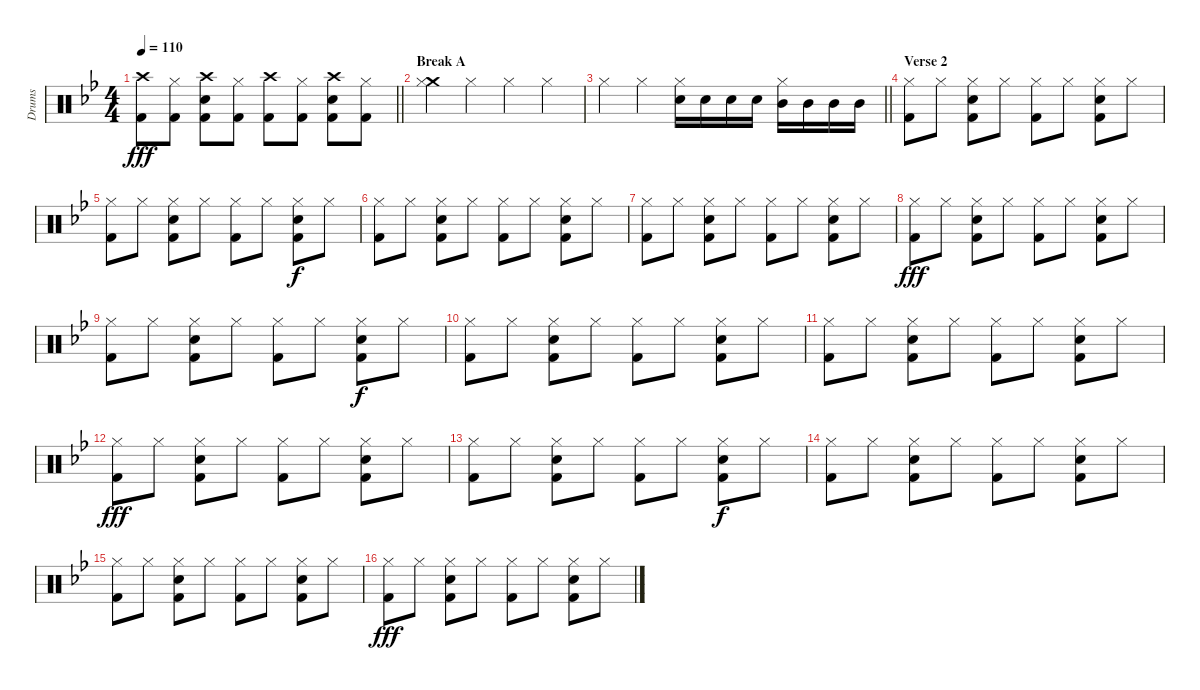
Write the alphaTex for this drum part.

\track ("Drums" "Drums") {instrument percussion}
\staff {score}
\articulation defaults
\ts (4 4)
\tempo 110
\clef neutral
\barLineRight lightlight
\ks bb
("Crash high (hit)" "Kick (hit) 2").8{dy fff} ("Hi-Hat (closed)" "Kick (hit) 2").8 ("Crash high (hit)" "Electric Snare (hit)" "Kick (hit) 2").8 ("Hi-Hat (closed)" "Kick (hit) 2").8 ("Crash high (hit)" "Kick (hit) 2").8 ("Hi-Hat (closed)" "Kick (hit) 2").8 ("Crash high (hit)" "Electric Snare (hit)" "Kick (hit) 2").8 ("Hi-Hat (closed)" "Kick (hit) 2").8 |
\section ("" "Break A")
("Crash medium (hit)" "Hi-Hat (closed)").4 "Hi-Hat (closed)".4 "Hi-Hat (closed)".4 "Hi-Hat (closed)".4 |
\barLineRight lightlight "Hi-Hat (closed)".4 "Hi-Hat (closed)".4
("Hi-Hat (closed)" "Electric Snare (hit)").16 "Electric Snare (hit)".16 "Electric Snare (hit)".16 "Electric Snare (hit)".16 ("Hi-Hat (closed)" "Mid Tom (hit)").16 "Mid Tom (hit)".16 "Mid Tom (hit)".16 "Mid Tom (hit)".16 |
\section ("" "Verse 2")
("Hi-Hat (closed)" "Kick (hit) 2").8 "Hi-Hat (closed)".8 ("Hi-Hat (closed)" "Electric Snare (hit)" "Kick (hit) 2").8 "Hi-Hat (closed)".8 ("Hi-Hat (closed)" "Kick (hit) 2").8 "Hi-Hat (closed)".8 ("Hi-Hat (closed)" "Electric Snare (hit)" "Kick (hit) 2").8 "Hi-Hat (closed)".8 |
("Hi-Hat (closed)" "Kick (hit) 2").8 "Hi-Hat (closed)".8 ("Hi-Hat (closed)" "Electric Snare (hit)" "Kick (hit) 2").8 "Hi-Hat (closed)".8 ("Hi-Hat (closed)" "Kick (hit) 2").8 "Hi-Hat (closed)".8 ("Hi-Hat (closed)" "Electric Snare (hit)" "Kick (hit) 2").8{dy f} "Hi-Hat (closed)".8 |
("Hi-Hat (closed)" "Kick (hit) 2").8 "Hi-Hat (closed)".8 ("Hi-Hat (closed)" "Electric Snare (hit)" "Kick (hit) 2").8 "Hi-Hat (closed)".8 ("Hi-Hat (closed)" "Kick (hit) 2").8 "Hi-Hat (closed)".8 ("Hi-Hat (closed)" "Electric Snare (hit)" "Kick (hit) 2").8 "Hi-Hat (closed)".8 |
("Hi-Hat (closed)" "Kick (hit) 2").8 "Hi-Hat (closed)".8 ("Hi-Hat (closed)" "Electric Snare (hit)" "Kick (hit) 2").8 "Hi-Hat (closed)".8 ("Hi-Hat (closed)" "Kick (hit) 2").8 "Hi-Hat (closed)".8 ("Hi-Hat (closed)" "Electric Snare (hit)" "Kick (hit) 2").8 "Hi-Hat (closed)".8 |
("Hi-Hat (closed)" "Kick (hit) 2").8{dy fff} "Hi-Hat (closed)".8 ("Hi-Hat (closed)" "Electric Snare (hit)" "Kick (hit) 2").8 "Hi-Hat (closed)".8 ("Hi-Hat (closed)" "Kick (hit) 2").8 "Hi-Hat (closed)".8 ("Hi-Hat (closed)" "Electric Snare (hit)" "Kick (hit) 2").8 "Hi-Hat (closed)".8 |
("Hi-Hat (closed)" "Kick (hit) 2").8 "Hi-Hat (closed)".8 ("Hi-Hat (closed)" "Electric Snare (hit)" "Kick (hit) 2").8 "Hi-Hat (closed)".8 ("Hi-Hat (closed)" "Kick (hit) 2").8 "Hi-Hat (closed)".8 ("Hi-Hat (closed)" "Electric Snare (hit)" "Kick (hit) 2").8{dy f} "Hi-Hat (closed)".8 |
("Hi-Hat (closed)" "Kick (hit) 2").8 "Hi-Hat (closed)".8 ("Hi-Hat (closed)" "Electric Snare (hit)" "Kick (hit) 2").8 "Hi-Hat (closed)".8 ("Hi-Hat (closed)" "Kick (hit) 2").8 "Hi-Hat (closed)".8 ("Hi-Hat (closed)" "Electric Snare (hit)" "Kick (hit) 2").8 "Hi-Hat (closed)".8 |
("Hi-Hat (closed)" "Kick (hit) 2").8 "Hi-Hat (closed)".8 ("Hi-Hat (closed)" "Electric Snare (hit)" "Kick (hit) 2").8 "Hi-Hat (closed)".8 ("Hi-Hat (closed)" "Kick (hit) 2").8 "Hi-Hat (closed)".8 ("Hi-Hat (closed)" "Electric Snare (hit)" "Kick (hit) 2").8 "Hi-Hat (closed)".8 |
("Hi-Hat (closed)" "Kick (hit) 2").8{dy fff} "Hi-Hat (closed)".8 ("Hi-Hat (closed)" "Electric Snare (hit)" "Kick (hit) 2").8 "Hi-Hat (closed)".8 ("Hi-Hat (closed)" "Kick (hit) 2").8 "Hi-Hat (closed)".8 ("Hi-Hat (closed)" "Electric Snare (hit)" "Kick (hit) 2").8 "Hi-Hat (closed)".8 |
("Hi-Hat (closed)" "Kick (hit) 2").8 "Hi-Hat (closed)".8 ("Hi-Hat (closed)" "Electric Snare (hit)" "Kick (hit) 2").8 "Hi-Hat (closed)".8 ("Hi-Hat (closed)" "Kick (hit) 2").8 "Hi-Hat (closed)".8 ("Hi-Hat (closed)" "Electric Snare (hit)" "Kick (hit) 2").8{dy f} "Hi-Hat (closed)".8 |
("Hi-Hat (closed)" "Kick (hit) 2").8 "Hi-Hat (closed)".8 ("Hi-Hat (closed)" "Electric Snare (hit)" "Kick (hit) 2").8 "Hi-Hat (closed)".8 ("Hi-Hat (closed)" "Kick (hit) 2").8 "Hi-Hat (closed)".8 ("Hi-Hat (closed)" "Electric Snare (hit)" "Kick (hit) 2").8 "Hi-Hat (closed)".8 |
("Hi-Hat (closed)" "Kick (hit) 2").8 "Hi-Hat (closed)".8 ("Hi-Hat (closed)" "Electric Snare (hit)" "Kick (hit) 2").8 "Hi-Hat (closed)".8 ("Hi-Hat (closed)" "Kick (hit) 2").8 "Hi-Hat (closed)".8 ("Hi-Hat (closed)" "Electric Snare (hit)" "Kick (hit) 2").8 "Hi-Hat (closed)".8 |
("Hi-Hat (closed)" "Kick (hit) 2").8{dy fff} "Hi-Hat (closed)".8 ("Hi-Hat (closed)" "Electric Snare (hit)" "Kick (hit) 2").8 "Hi-Hat (closed)".8 ("Hi-Hat (closed)" "Kick (hit) 2").8 "Hi-Hat (closed)".8 ("Hi-Hat (closed)" "Electric Snare (hit)" "Kick (hit) 2").8 "Hi-Hat (closed)".8
